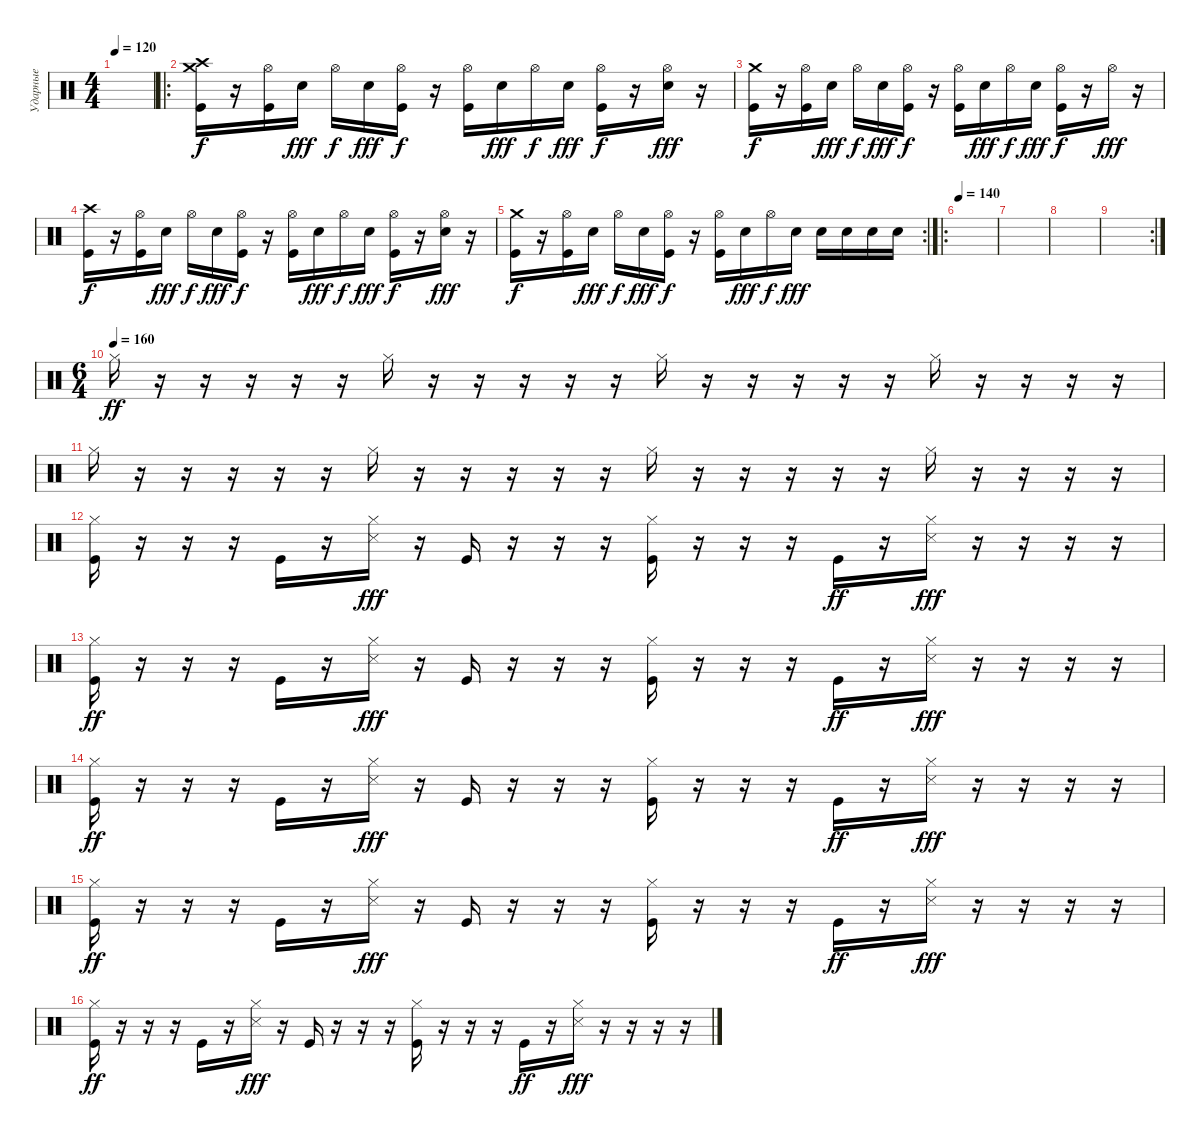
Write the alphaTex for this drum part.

\track ("Ударные" "Ударные") {instrument percussion}
\staff {score}
\articulation defaults
\ts (4 4)
\tempo 120
\clef neutral
\ks c
|
\ro
("Crash high (hit)" "Crash medium (hit)" "Kick (hit)").16 r.16 ("Hi-Hat (open)" "Kick (hit)").16{dy f} "Electric Snare (hit)".16{dy fff} "Hi-Hat (open)".16{dy f} "Electric Snare (hit)".16{dy fff} ("Hi-Hat (open)" "Kick (hit)").16{dy f} r.16 ("Hi-Hat (open)" "Kick (hit)").16 "Electric Snare (hit)".16{dy fff} "Hi-Hat (open)".16{dy f} "Electric Snare (hit)".16{dy fff} ("Hi-Hat (open)" "Kick (hit)").16{dy f} r.16 ("Hi-Hat (open)" "Electric Snare (hit)").16{dy fff} r.16 |
("Crash medium (hit)" "Kick (hit)").16{dy f} r.16 ("Hi-Hat (open)" "Kick (hit)").16 "Electric Snare (hit)".16{dy fff} "Hi-Hat (open)".16{dy f} "Electric Snare (hit)".16{dy fff} ("Hi-Hat (open)" "Kick (hit)").16{dy f} r.16 ("Hi-Hat (open)" "Kick (hit)").16 "Electric Snare (hit)".16{dy fff} "Hi-Hat (open)".16{dy f} "Electric Snare (hit)".16{dy fff} ("Hi-Hat (open)" "Kick (hit)").16{dy f} r.16 "Hi-Hat (open)".16{dy fff} r.16 |
("Crash high (hit)" "Kick (hit)").16{dy f} r.16 ("Hi-Hat (open)" "Kick (hit)").16 "Electric Snare (hit)".16{dy fff} "Hi-Hat (open)".16{dy f} "Electric Snare (hit)".16{dy fff} ("Hi-Hat (open)" "Kick (hit)").16{dy f} r.16 ("Hi-Hat (open)" "Kick (hit)").16 "Electric Snare (hit)".16{dy fff} "Hi-Hat (open)".16{dy f} "Electric Snare (hit)".16{dy fff} ("Hi-Hat (open)" "Kick (hit)").16{dy f} r.16 ("Hi-Hat (open)" "Electric Snare (hit)").16{dy fff} r.16 |
\rc 2
("Crash medium (hit)" "Kick (hit)").16{dy f} r.16 ("Hi-Hat (open)" "Kick (hit)").16 "Electric Snare (hit)".16{dy fff} "Hi-Hat (open)".16{dy f} "Electric Snare (hit)".16{dy fff} ("Hi-Hat (open)" "Kick (hit)").16{dy f} r.16 ("Hi-Hat (open)" "Kick (hit)").16 "Electric Snare (hit)".16{dy fff} "Hi-Hat (open)".16{dy f} "Electric Snare (hit)".16{dy fff} "Electric Snare (hit)".16 "Electric Snare (hit)".16 "Electric Snare (hit)".16 "Electric Snare (hit)".16 |
\ro
\tempo 140
|
|
|
\rc 2
|
\ts (6 4)
\tempo (160)
"Hi-Hat (closed)".16{dy ff} r.16 r.16 r.16 r.16 r.16 "Hi-Hat (closed)".16 r.16 r.16 r.16 r.16 r.16 "Hi-Hat (closed)".16 r.16 r.16 r.16 r.16 r.16 "Hi-Hat (closed)".16 r.16 r.16 r.16 r.16 |
"Hi-Hat (closed)".16 r.16 r.16 r.16 r.16 r.16 "Hi-Hat (closed)".16 r.16 r.16 r.16 r.16 r.16 "Hi-Hat (closed)".16 r.16 r.16 r.16 r.16 r.16 "Hi-Hat (closed)".16 r.16 r.16 r.16 r.16 |
("Hi-Hat (closed)" "Kick (hit)").16 r.16 r.16 r.16 "Kick (hit)".16 r.16 ("Hi-Hat (closed)" "Snare (side stick) 3").16{dy fff} r.16 "Kick (hit)".16 r.16 r.16 r.16 ("Hi-Hat (closed)" "Kick (hit)").16 r.16 r.16 r.16 "Kick (hit)".16{dy ff} r.16 ("Hi-Hat (closed)" "Snare (side stick) 3").16{dy fff} r.16 r.16 r.16 r.16 |
("Hi-Hat (closed)" "Kick (hit)").16{dy ff} r.16 r.16 r.16 "Kick (hit)".16 r.16 ("Hi-Hat (closed)" "Snare (side stick) 3").16{dy fff} r.16 "Kick (hit)".16 r.16 r.16 r.16 ("Hi-Hat (closed)" "Kick (hit)").16 r.16 r.16 r.16 "Kick (hit)".16{dy ff} r.16 ("Hi-Hat (closed)" "Snare (side stick) 3").16{dy fff} r.16 r.16 r.16 r.16 |
("Hi-Hat (closed)" "Kick (hit)").16{dy ff} r.16 r.16 r.16 "Kick (hit)".16 r.16 ("Hi-Hat (closed)" "Snare (side stick) 3").16{dy fff} r.16 "Kick (hit)".16 r.16 r.16 r.16 ("Hi-Hat (closed)" "Kick (hit)").16 r.16 r.16 r.16 "Kick (hit)".16{dy ff} r.16 ("Hi-Hat (closed)" "Snare (side stick) 3").16{dy fff} r.16 r.16 r.16 r.16 |
("Hi-Hat (closed)" "Kick (hit)").16{dy ff} r.16 r.16 r.16 "Kick (hit)".16 r.16 ("Hi-Hat (closed)" "Snare (side stick) 3").16{dy fff} r.16 "Kick (hit)".16 r.16 r.16 r.16 ("Hi-Hat (closed)" "Kick (hit)").16 r.16 r.16 r.16 "Kick (hit)".16{dy ff} r.16 ("Hi-Hat (closed)" "Snare (side stick) 3").16{dy fff} r.16 r.16 r.16 r.16 |
("Hi-Hat (closed)" "Kick (hit)").16{dy ff} r.16 r.16 r.16 "Kick (hit)".16 r.16 ("Hi-Hat (closed)" "Snare (side stick) 3").16{dy fff} r.16 "Kick (hit)".16 r.16 r.16 r.16 ("Hi-Hat (closed)" "Kick (hit)").16 r.16 r.16 r.16 "Kick (hit)".16{dy ff} r.16 ("Hi-Hat (closed)" "Snare (side stick) 3").16{dy fff} r.16 r.16 r.16 r.16
